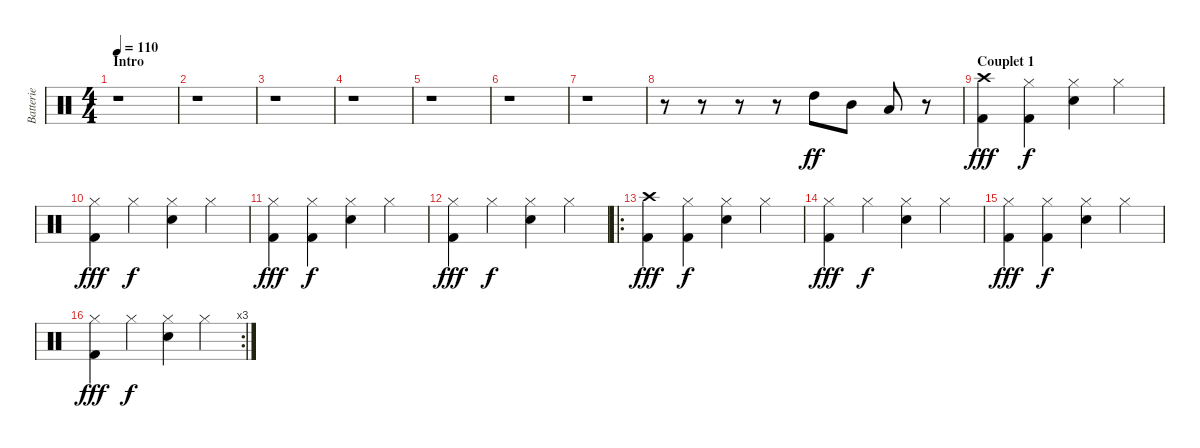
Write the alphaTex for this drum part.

\track ("Batterie" "Batterie") {instrument percussion}
\staff {score}
\articulation defaults
\ts (4 4)
\section ("" "Intro")
\tempo 110
\clef neutral
\ks c
r.1{dy ff} |
r.1 |
r.1 |
r.1 |
r.1 |
r.1 |
r.1 |
r.8 r.8 r.8 r.8 "High Tom (hit)".8 "Mid Tom (hit)".8 "Low Tom (hit)".8 r.8 |
\section ("" "Couplet 1")
("Crash high (hit)" "Kick (hit) 2").4{dy fff} ("Hi-Hat (closed)" "Kick (hit) 2").4{dy f} ("Hi-Hat (closed)" "Electric Snare (hit)").4 "Hi-Hat (closed)".4 |
("Hi-Hat (closed)" "Kick (hit) 2").4{dy fff} "Hi-Hat (closed)".4{dy f} ("Hi-Hat (closed)" "Electric Snare (hit)").4 "Hi-Hat (closed)".4 |
("Hi-Hat (closed)" "Kick (hit) 2").4{dy fff} ("Hi-Hat (closed)" "Kick (hit) 2").4{dy f} ("Hi-Hat (closed)" "Electric Snare (hit)").4 "Hi-Hat (closed)".4 |
("Hi-Hat (closed)" "Kick (hit) 2").4{dy fff} "Hi-Hat (closed)".4{dy f} ("Hi-Hat (closed)" "Electric Snare (hit)").4 "Hi-Hat (closed)".4 |
\ro
("Crash high (hit)" "Kick (hit) 2").4{dy fff} ("Hi-Hat (closed)" "Kick (hit) 2").4{dy f} ("Hi-Hat (closed)" "Electric Snare (hit)").4 "Hi-Hat (closed)".4 |
("Hi-Hat (closed)" "Kick (hit) 2").4{dy fff} "Hi-Hat (closed)".4{dy f} ("Hi-Hat (closed)" "Electric Snare (hit)").4 "Hi-Hat (closed)".4 |
("Hi-Hat (closed)" "Kick (hit) 2").4{dy fff} ("Hi-Hat (closed)" "Kick (hit) 2").4{dy f} ("Hi-Hat (closed)" "Electric Snare (hit)").4 "Hi-Hat (closed)".4 |
\rc 3
("Hi-Hat (closed)" "Kick (hit) 2").4{dy fff} "Hi-Hat (closed)".4{dy f} ("Hi-Hat (closed)" "Electric Snare (hit)").4 "Hi-Hat (closed)".4
